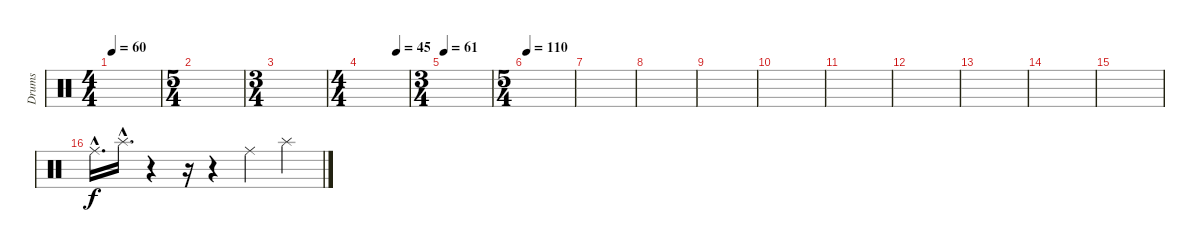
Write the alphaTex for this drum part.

\track ("Drums" "Drums") {instrument percussion}
\staff {score}
\articulation defaults
\ts (4 4)
\tempo 60
\clef neutral
\ks c
|
\ts (5 4)
|
\ts (3 4)
|
\ts (4 4)
\tempo (45 0.75)
|
\ts (3 4)
\tempo 61
|
\ts (5 4)
\tempo 110
|
|
|
|
|
|
|
|
|
|
"Ride (middle)"{hac}.16{d volume 10} "Splash (hit)"{hac}.16{d} r.4 r.16 r.4 "Ride (middle)".4 "Splash (hit)".4
